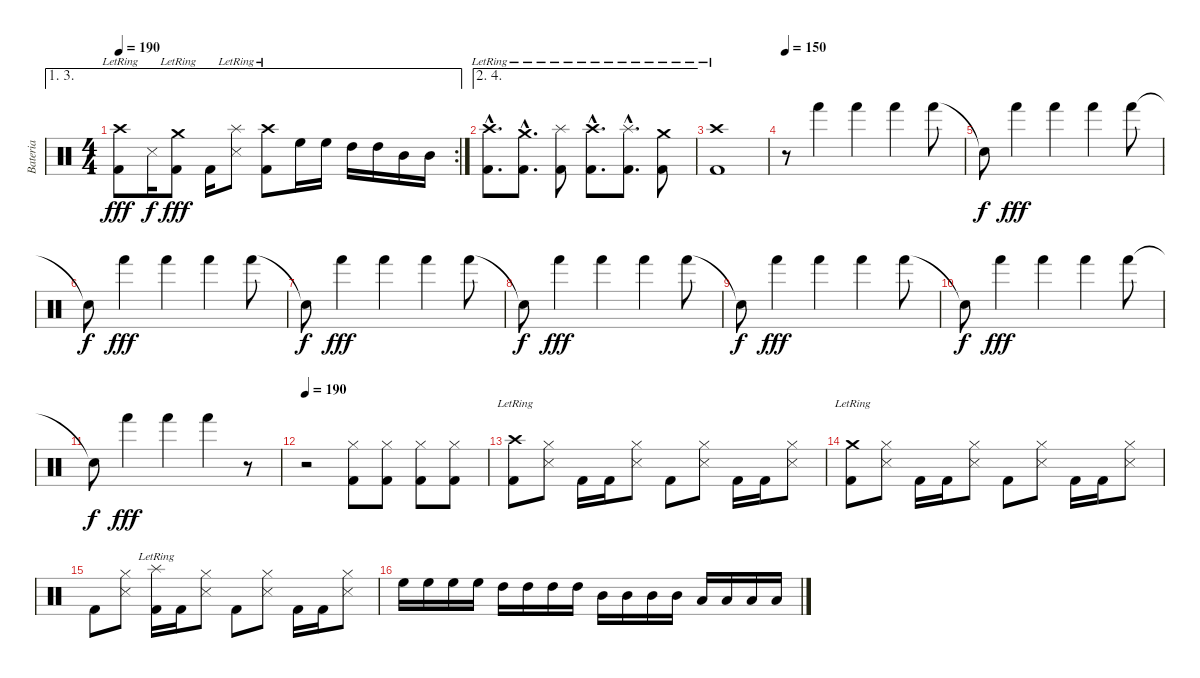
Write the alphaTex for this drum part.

\track ("Bateria" "Bateria") {instrument percussion}
\staff {score}
\articulation defaults
\ae (1 3)
\rc 2
\ts (4 4)
\tempo 190
\clef neutral
\ks c
("Crash high (hit)"{lr} "Kick (hit) 2").8{dy fff} "Snare (side stick) 3".16{dy f} ("Crash medium (hit)"{lr} "Kick (hit) 2").8{dy fff} "Kick (hit) 2".16 ("Splash (hit)"{lr} "Snare (side stick) 3").8 ("Crash high (hit)"{lr} "Kick (hit) 2").8 "High Floor Tom (hit)".16 "High Floor Tom (hit)".16 "High Tom (hit)".16 "High Tom (hit)".16 "Mid Tom (hit)".16 "Mid Tom (hit)".16 |
\ae (2 4)
("Crash high (hit)"{hac lr} "Kick (hit) 2"{hac}).8{d} ("Crash medium (hit)"{hac lr} "Kick (hit) 2"{hac}).8{d} ("Splash (hit)"{lr} "Kick (hit) 2").8 ("Crash high (hit)"{hac lr} "Kick (hit) 2"{hac}).8{d} ("Splash (hit)"{hac lr} "Kick (hit) 2"{hac}).8{d} ("Crash medium (hit)"{lr} "Kick (hit) 2").8 |
("Crash high (hit)"{lr} "Kick (hit) 2").1 |
\tempo 150
r.8 "Hand (hit)".4 "Hand (hit)".4 "Hand (hit)".4 "Hand (hit)".8 |
"Snare (hit)"{t}.8{dy f} "Hand (hit)".4{dy fff} "Hand (hit)".4 "Hand (hit)".4 "Hand (hit)".8 |
"Snare (hit)"{t}.8{dy f} "Hand (hit)".4{dy fff} "Hand (hit)".4 "Hand (hit)".4 "Hand (hit)".8 |
"Snare (hit)"{t}.8{dy f} "Hand (hit)".4{dy fff} "Hand (hit)".4 "Hand (hit)".4 "Hand (hit)".8 |
"Snare (hit)"{t}.8{dy f} "Hand (hit)".4{dy fff} "Hand (hit)".4 "Hand (hit)".4 "Hand (hit)".8 |
"Snare (hit)"{t}.8{dy f} "Hand (hit)".4{dy fff} "Hand (hit)".4 "Hand (hit)".4 "Hand (hit)".8 |
"Snare (hit)"{t}.8{dy f} "Hand (hit)".4{dy fff} "Hand (hit)".4 "Hand (hit)".4 "Hand (hit)".8 |
"Snare (hit)"{t}.8{dy f} "Hand (hit)".4{dy fff} "Hand (hit)".4 "Hand (hit)".4 r.8 |
\tempo 190
r.2 ("Hi-Hat (closed)" "Kick (hit) 2").8 ("Hi-Hat (closed)" "Kick (hit) 2").8 ("Hi-Hat (closed)" "Kick (hit) 2").8 ("Hi-Hat (closed)" "Kick (hit) 2").8 |
("Crash high (hit)"{lr} "Kick (hit) 2").8 ("Hi-Hat (closed)" "Snare (side stick) 3").8 "Kick (hit) 2".16 "Kick (hit) 2".16 ("Hi-Hat (closed)" "Snare (side stick) 3").8 "Kick (hit) 2".8 ("Hi-Hat (closed)" "Snare (side stick) 3").8 "Kick (hit) 2".16 "Kick (hit) 2".16 ("Hi-Hat (closed)" "Snare (side stick) 3").8 |
("Crash medium (hit)"{lr} "Kick (hit) 2").8 ("Hi-Hat (closed)" "Snare (side stick) 3").8 "Kick (hit) 2".16 "Kick (hit) 2".16 ("Hi-Hat (closed)" "Snare (side stick) 3").8 "Kick (hit) 2".8 ("Hi-Hat (closed)" "Snare (side stick) 3").8 "Kick (hit) 2".16 "Kick (hit) 2".16 ("Hi-Hat (closed)" "Snare (side stick) 3").8 |
"Kick (hit) 2".8 ("Hi-Hat (closed)" "Snare (side stick) 3").8 ("Splash (hit)"{lr} "Kick (hit) 2").16 "Kick (hit) 2".16 ("Hi-Hat (closed)" "Snare (side stick) 3").8 "Kick (hit) 2".8 ("Hi-Hat (closed)" "Snare (side stick) 3").8 "Kick (hit) 2".16 "Kick (hit) 2".16 ("Hi-Hat (closed)" "Snare (side stick) 3").8 |
"High Floor Tom (hit)".16 "High Floor Tom (hit)".16 "High Floor Tom (hit)".16 "High Floor Tom (hit)".16 "High Tom (hit)".16 "High Tom (hit)".16 "High Tom (hit)".16 "High Tom (hit)".16 "Mid Tom (hit)".16 "Mid Tom (hit)".16 "Mid Tom (hit)".16 "Mid Tom (hit)".16 "Low Tom (hit)".16 "Low Tom (hit)".16 "Low Tom (hit)".16 "Low Tom (hit)".16
